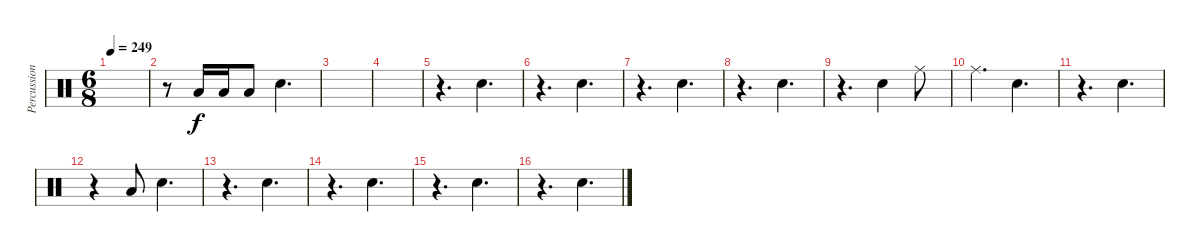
\track ("Percussion" "Percussion") {instrument percussion}
\staff {score}
\articulation defaults
\ts (6 8)
\tempo 249
\clef neutral
\ks c
|
r.8 "Low Tom (hit)".16 "Low Tom (hit)".16 "Low Tom (hit)".8 "Snare (hit) 2".4{d} |
|
|
r.4{d} "Snare (hit) 2".4{d} |
r.4{d} "Snare (hit) 2".4{d} |
r.4{d} "Snare (hit) 2".4{d} |
r.4{d} "Snare (hit) 2".4{d} |
r.4{d} "Snare (hit) 2".4 "Ride (middle)".8 |
"Ride (middle)".4{d} "Snare (hit) 2".4{d} |
r.4{d} "Snare (hit) 2".4{d} |
r.4 "Low Tom (hit)".8 "Snare (hit) 2".4{d} |
r.4{d} "Snare (hit) 2".4{d} |
r.4{d} "Snare (hit) 2".4{d} |
r.4{d} "Snare (hit) 2".4{d} |
r.4{d} "Snare (hit) 2".4{d}
